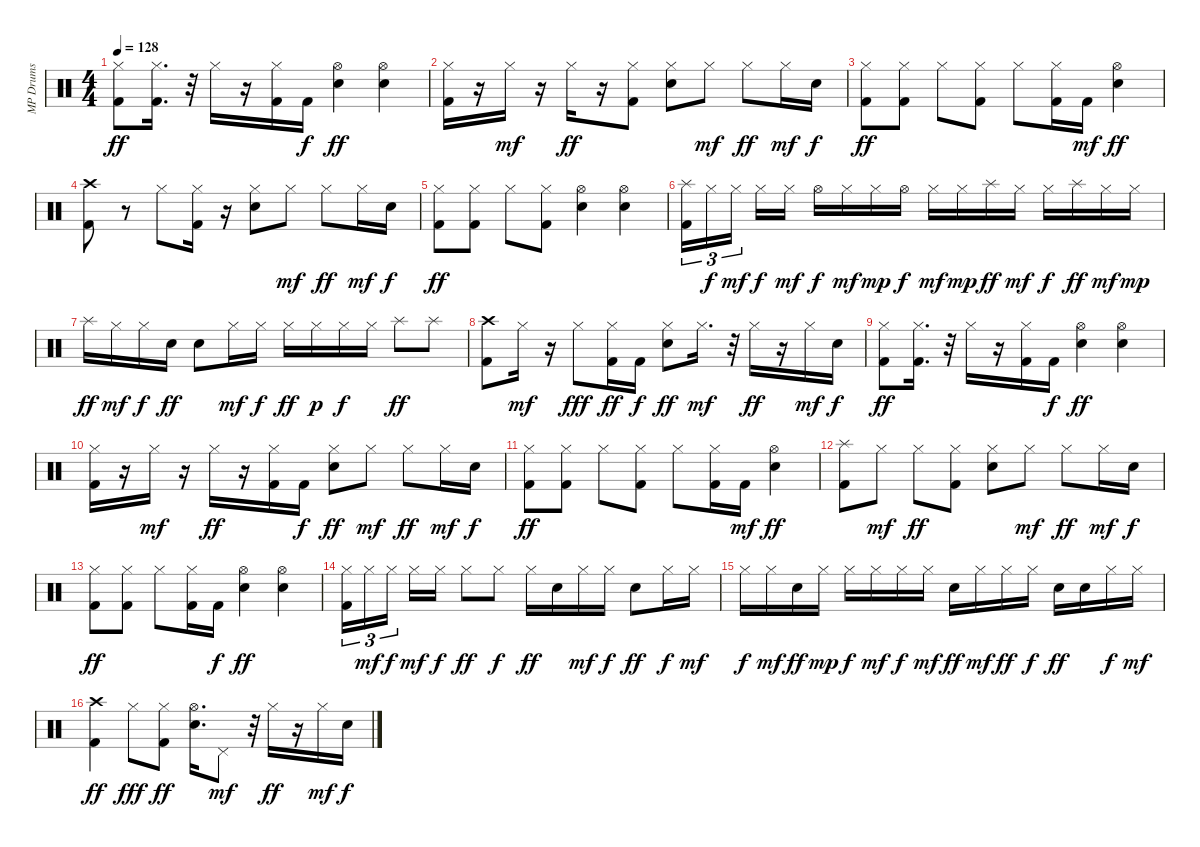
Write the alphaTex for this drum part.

\track ("MP Drums" "MP Drums") {instrument percussion}
\staff {score}
\articulation defaults
\ts (4 4)
\tempo 128
\clef neutral
\ks c
("Hi-Hat (closed)" "Kick (hit) 2").8{dy ff} ("Hi-Hat (closed)" "Kick (hit) 2").16{d} r.32 "Hi-Hat (closed)".16 r.16 ("Hi-Hat (closed)" "Kick (hit) 2").16 "Kick (hit) 2".16{dy f} ("Hi-Hat (open)" "Snare (hit) 2").4{dy ff} ("Hi-Hat (open)" "Snare (hit) 2").4 |
("Hi-Hat (closed)" "Kick (hit) 2").16 r.16 "Hi-Hat (closed)".16{dy mf} r.16 "Hi-Hat (closed)".16{dy ff} r.16 ("Hi-Hat (closed)" "Kick (hit) 2").8 ("Hi-Hat (closed)" "Snare (hit) 2").8 "Hi-Hat (closed)".8{dy mf} "Hi-Hat (closed)".8{dy ff} "Hi-Hat (closed)".16{dy mf} "Snare (hit) 2".16{dy f} |
("Hi-Hat (closed)" "Kick (hit) 2").8{dy ff} ("Hi-Hat (closed)" "Kick (hit) 2").8 "Hi-Hat (closed)".8 ("Hi-Hat (closed)" "Kick (hit) 2").8 "Hi-Hat (closed)".8 ("Hi-Hat (closed)" "Kick (hit) 2").16 "Kick (hit) 2".16{dy mf} ("Hi-Hat (open)" "Snare (hit) 2").4{dy ff} |
("Crash high (hit)" "Kick (hit) 2").8 r.8 "Hi-Hat (closed)".8 ("Hi-Hat (closed)" "Kick (hit) 2").16 r.16 ("Hi-Hat (closed)" "Snare (hit) 2").8 "Hi-Hat (closed)".8{dy mf} "Hi-Hat (closed)".8{dy ff} "Hi-Hat (closed)".16{dy mf} "Snare (hit) 2".16{dy f} |
("Hi-Hat (closed)" "Kick (hit) 2").8{dy ff} ("Hi-Hat (closed)" "Kick (hit) 2").8 "Hi-Hat (closed)".8 ("Hi-Hat (closed)" "Kick (hit) 2").8 ("Hi-Hat (open)" "Snare (hit) 2").4 ("Hi-Hat (open)" "Snare (hit) 2").4 |
("Splash (hit)" "Kick (hit) 2").16{tu (3 2)} "Hi-Hat (closed)".16{tu (3 2) dy f} "Hi-Hat (closed)".16{tu (3 2) dy mf} "Hi-Hat (closed)".16{dy f} "Hi-Hat (closed)".16{dy mf} "Hi-Hat (open)".16{dy f} "Hi-Hat (closed)".16{dy mf} "Hi-Hat (closed)".16{dy mp} "Hi-Hat (open)".16{dy f} "Hi-Hat (closed)".16{dy mf} "Hi-Hat (closed)".16{dy mp} "Splash (hit)".16{dy ff} "Hi-Hat (closed)".16{dy mf} "Hi-Hat (closed)".16{dy f} "Splash (hit)".16{dy ff} "Hi-Hat (closed)".16{dy mf} "Hi-Hat (closed)".16{dy mp} |
"Splash (hit)".16{dy ff} "Hi-Hat (closed)".16{dy mf} "Hi-Hat (closed)".16{dy f} "Snare (hit) 2".16{dy ff} "Snare (hit) 2".8 "Hi-Hat (closed)".16{dy mf} "Hi-Hat (closed)".16{dy f} "Hi-Hat (closed)".16{dy ff} "Hi-Hat (closed)".16{dy p} "Hi-Hat (closed)".16{dy f} "Hi-Hat (closed)".16 "Splash (hit)".8{dy ff} "Splash (hit)".8 |
("Crash high (hit)" "Kick (hit) 2").8 "Hi-Hat (closed)".16{dy mf} r.16 "Hi-Hat (closed)".8{dy fff} ("Hi-Hat (closed)" "Kick (hit) 2").16{dy ff} "Kick (hit) 2".16{dy f} ("Hi-Hat (closed)" "Snare (hit) 2").8{dy ff} "Hi-Hat (closed)".16{d dy mf} r.32 "Hi-Hat (closed)".16{dy ff} r.16 "Hi-Hat (closed)".16{dy mf} "Snare (hit) 2".16{dy f} |
("Hi-Hat (closed)" "Kick (hit) 2").8{dy ff} ("Hi-Hat (closed)" "Kick (hit) 2").16{d} r.32 "Hi-Hat (closed)".16 r.16 ("Hi-Hat (closed)" "Kick (hit) 2").16 "Kick (hit) 2".16{dy f} ("Hi-Hat (open)" "Snare (hit) 2").4{dy ff} ("Hi-Hat (open)" "Snare (hit) 2").4 |
("Hi-Hat (closed)" "Kick (hit) 2").16 r.16 "Hi-Hat (closed)".16{dy mf} r.16 "Hi-Hat (closed)".16{dy ff} r.16 ("Hi-Hat (closed)" "Kick (hit) 2").16 "Kick (hit) 2".16{dy f} ("Hi-Hat (closed)" "Snare (hit) 2").8{dy ff} "Hi-Hat (closed)".8{dy mf} "Hi-Hat (closed)".8{dy ff} "Hi-Hat (closed)".16{dy mf} "Snare (hit) 2".16{dy f} |
("Hi-Hat (closed)" "Kick (hit) 2").8{dy ff} ("Hi-Hat (closed)" "Kick (hit) 2").8 "Hi-Hat (closed)".8 ("Hi-Hat (closed)" "Kick (hit) 2").8 "Hi-Hat (closed)".8 ("Hi-Hat (closed)" "Kick (hit) 2").16 "Kick (hit) 2".16{dy mf} ("Hi-Hat (open)" "Snare (hit) 2").4{dy ff} |
("Splash (hit)" "Kick (hit) 2").8 "Hi-Hat (closed)".8{dy mf} "Hi-Hat (closed)".8{dy ff} ("Hi-Hat (closed)" "Kick (hit) 2").8 ("Hi-Hat (closed)" "Snare (hit) 2").8 "Hi-Hat (closed)".8{dy mf} "Hi-Hat (closed)".8{dy ff} "Hi-Hat (closed)".16{dy mf} "Snare (hit) 2".16{dy f} |
("Hi-Hat (closed)" "Kick (hit) 2").8{dy ff} ("Hi-Hat (closed)" "Kick (hit) 2").8 "Hi-Hat (closed)".8 ("Hi-Hat (closed)" "Kick (hit) 2").16 "Kick (hit) 2".16{dy f} ("Hi-Hat (open)" "Snare (hit) 2").4{dy ff} ("Hi-Hat (open)" "Snare (hit) 2").4 |
("Hi-Hat (closed)" "Kick (hit) 2").16{tu (3 2)} "Hi-Hat (closed)".16{tu (3 2) dy mf} "Hi-Hat (closed)".16{tu (3 2) dy f} "Hi-Hat (closed)".16{dy mf} "Hi-Hat (closed)".16{dy f} "Hi-Hat (closed)".8{dy ff} "Hi-Hat (closed)".8{dy f} "Hi-Hat (closed)".16{dy ff} "Snare (hit) 2".16 "Hi-Hat (closed)".16{dy mf} "Hi-Hat (closed)".16{dy f} "Snare (hit) 2".8{dy ff} "Hi-Hat (closed)".16{dy f} "Hi-Hat (closed)".16{dy mf} |
"Hi-Hat (closed)".16{dy f} "Hi-Hat (closed)".16{dy mf} "Snare (hit) 2".16{dy ff} "Hi-Hat (closed)".16{dy mp} "Hi-Hat (closed)".16{dy f} "Hi-Hat (closed)".16{dy mf} "Hi-Hat (closed)".16{dy f} "Hi-Hat (closed)".16{dy mf} "Snare (hit) 2".16{dy ff} "Hi-Hat (closed)".16{dy mf} "Hi-Hat (closed)".16{dy ff} "Hi-Hat (closed)".16{dy f} "Snare (hit) 2".16{dy ff} "Snare (hit) 2".16 "Hi-Hat (closed)".16{dy f} "Hi-Hat (closed)".16{dy mf} |
("Crash high (hit)" "Kick (hit) 2").4{dy ff} "Hi-Hat (closed)".8{dy fff} ("Hi-Hat (closed)" "Kick (hit) 2").8{dy ff} ("Hi-Hat (open)" "Snare (hit) 2").16{d} "Pedal Hi-Hat (hit)".8{dy mf} r.32 "Hi-Hat (closed)".16{dy ff} r.16 "Hi-Hat (closed)".16{dy mf} "Snare (hit) 2".16{dy f}
